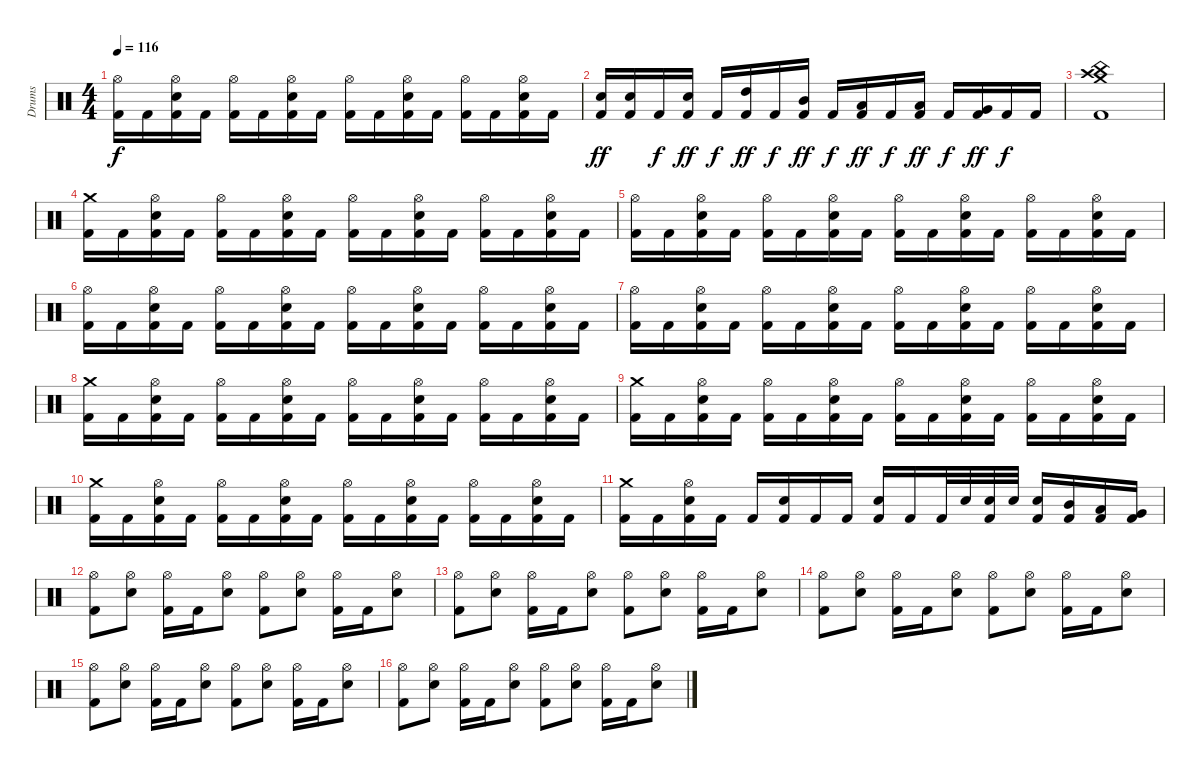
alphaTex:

\track ("Drums" "Drums") {instrument percussion}
\staff {score}
\articulation defaults
\ts (4 4)
\tempo 116
\clef neutral
\ks c
("Hi-Hat (open)" "Kick (hit) 2").16{dy f} "Kick (hit) 2".16 ("Hi-Hat (open)" "Electric Snare (hit)" "Kick (hit) 2").16 "Kick (hit) 2".16 ("Hi-Hat (open)" "Kick (hit) 2").16 "Kick (hit) 2".16 ("Hi-Hat (open)" "Electric Snare (hit)" "Kick (hit) 2").16 "Kick (hit) 2".16 ("Hi-Hat (open)" "Kick (hit) 2").16 "Kick (hit) 2".16 ("Hi-Hat (open)" "Electric Snare (hit)" "Kick (hit) 2").16 "Kick (hit) 2".16 ("Hi-Hat (open)" "Kick (hit) 2").16 "Kick (hit) 2".16 ("Hi-Hat (open)" "Electric Snare (hit)" "Kick (hit) 2").16 "Kick (hit) 2".16 |
("Electric Snare (hit)" "Kick (hit) 2").16{dy ff} ("Electric Snare (hit)" "Kick (hit) 2").16 "Kick (hit) 2".16{dy f} ("Electric Snare (hit)" "Kick (hit) 2").16{dy ff} "Kick (hit) 2".16{dy f} ("High Tom (hit)" "Kick (hit) 2").16{dy ff} "Kick (hit) 2".16{dy f} ("Mid Tom (hit)" "Kick (hit) 2").16{dy ff} "Kick (hit) 2".16{dy f} ("Low Tom (hit)" "Kick (hit) 2").16{dy ff} "Kick (hit) 2".16{dy f} ("Low Tom (hit)" "Kick (hit) 2").16{dy ff} "Kick (hit) 2".16{dy f} ("Very Low Tom (hit)" "Kick (hit) 2").16{dy ff} "Kick (hit) 2".16{dy f} "Kick (hit) 2".16 |
("Crash medium (hit)" "Crash high (hit)" "China (hit)" "Kick (hit) 2").1 |
("Crash medium (hit)" "Kick (hit) 2").16 "Kick (hit) 2".16 ("Hi-Hat (open)" "Electric Snare (hit)" "Kick (hit) 2").16 "Kick (hit) 2".16 ("Hi-Hat (open)" "Kick (hit) 2").16 "Kick (hit) 2".16 ("Hi-Hat (open)" "Electric Snare (hit)" "Kick (hit) 2").16 "Kick (hit) 2".16 ("Hi-Hat (open)" "Kick (hit) 2").16 "Kick (hit) 2".16 ("Hi-Hat (open)" "Electric Snare (hit)" "Kick (hit) 2").16 "Kick (hit) 2".16 ("Hi-Hat (open)" "Kick (hit) 2").16 "Kick (hit) 2".16 ("Hi-Hat (open)" "Electric Snare (hit)" "Kick (hit) 2").16 "Kick (hit) 2".16 |
("Hi-Hat (open)" "Kick (hit) 2").16 "Kick (hit) 2".16 ("Hi-Hat (open)" "Electric Snare (hit)" "Kick (hit) 2").16 "Kick (hit) 2".16 ("Hi-Hat (open)" "Kick (hit) 2").16 "Kick (hit) 2".16 ("Hi-Hat (open)" "Electric Snare (hit)" "Kick (hit) 2").16 "Kick (hit) 2".16 ("Hi-Hat (open)" "Kick (hit) 2").16 "Kick (hit) 2".16 ("Hi-Hat (open)" "Electric Snare (hit)" "Kick (hit) 2").16 "Kick (hit) 2".16 ("Hi-Hat (open)" "Kick (hit) 2").16 "Kick (hit) 2".16 ("Hi-Hat (open)" "Electric Snare (hit)" "Kick (hit) 2").16 "Kick (hit) 2".16 |
("Hi-Hat (open)" "Kick (hit) 2").16 "Kick (hit) 2".16 ("Hi-Hat (open)" "Electric Snare (hit)" "Kick (hit) 2").16 "Kick (hit) 2".16 ("Hi-Hat (open)" "Kick (hit) 2").16 "Kick (hit) 2".16 ("Hi-Hat (open)" "Electric Snare (hit)" "Kick (hit) 2").16 "Kick (hit) 2".16 ("Hi-Hat (open)" "Kick (hit) 2").16 "Kick (hit) 2".16 ("Hi-Hat (open)" "Electric Snare (hit)" "Kick (hit) 2").16 "Kick (hit) 2".16 ("Hi-Hat (open)" "Kick (hit) 2").16 "Kick (hit) 2".16 ("Hi-Hat (open)" "Electric Snare (hit)" "Kick (hit) 2").16 "Kick (hit) 2".16 |
("Hi-Hat (open)" "Kick (hit) 2").16 "Kick (hit) 2".16 ("Hi-Hat (open)" "Electric Snare (hit)" "Kick (hit) 2").16 "Kick (hit) 2".16 ("Hi-Hat (open)" "Kick (hit) 2").16 "Kick (hit) 2".16 ("Hi-Hat (open)" "Electric Snare (hit)" "Kick (hit) 2").16 "Kick (hit) 2".16 ("Hi-Hat (open)" "Kick (hit) 2").16 "Kick (hit) 2".16 ("Hi-Hat (open)" "Electric Snare (hit)" "Kick (hit) 2").16 "Kick (hit) 2".16 ("Hi-Hat (open)" "Kick (hit) 2").16 "Kick (hit) 2".16 ("Hi-Hat (open)" "Electric Snare (hit)" "Kick (hit) 2").16 "Kick (hit) 2".16 |
("Crash medium (hit)" "Kick (hit) 2").16 "Kick (hit) 2".16 ("Hi-Hat (open)" "Electric Snare (hit)" "Kick (hit) 2").16 "Kick (hit) 2".16 ("Hi-Hat (open)" "Kick (hit) 2").16 "Kick (hit) 2".16 ("Hi-Hat (open)" "Electric Snare (hit)" "Kick (hit) 2").16 "Kick (hit) 2".16 ("Hi-Hat (open)" "Kick (hit) 2").16 "Kick (hit) 2".16 ("Hi-Hat (open)" "Electric Snare (hit)" "Kick (hit) 2").16 "Kick (hit) 2".16 ("Hi-Hat (open)" "Kick (hit) 2").16 "Kick (hit) 2".16 ("Hi-Hat (open)" "Electric Snare (hit)" "Kick (hit) 2").16 "Kick (hit) 2".16 |
("Crash medium (hit)" "Kick (hit) 2").16 "Kick (hit) 2".16 ("Hi-Hat (open)" "Electric Snare (hit)" "Kick (hit) 2").16 "Kick (hit) 2".16 ("Hi-Hat (open)" "Kick (hit) 2").16 "Kick (hit) 2".16 ("Hi-Hat (open)" "Electric Snare (hit)" "Kick (hit) 2").16 "Kick (hit) 2".16 ("Hi-Hat (open)" "Kick (hit) 2").16 "Kick (hit) 2".16 ("Hi-Hat (open)" "Electric Snare (hit)" "Kick (hit) 2").16 "Kick (hit) 2".16 ("Hi-Hat (open)" "Kick (hit) 2").16 "Kick (hit) 2".16 ("Hi-Hat (open)" "Electric Snare (hit)" "Kick (hit) 2").16 "Kick (hit) 2".16 |
("Crash medium (hit)" "Kick (hit) 2").16 "Kick (hit) 2".16 ("Hi-Hat (open)" "Electric Snare (hit)" "Kick (hit) 2").16 "Kick (hit) 2".16 ("Hi-Hat (open)" "Kick (hit) 2").16 "Kick (hit) 2".16 ("Hi-Hat (open)" "Electric Snare (hit)" "Kick (hit) 2").16 "Kick (hit) 2".16 ("Hi-Hat (open)" "Kick (hit) 2").16 "Kick (hit) 2".16 ("Hi-Hat (open)" "Electric Snare (hit)" "Kick (hit) 2").16 "Kick (hit) 2".16 ("Hi-Hat (open)" "Kick (hit) 2").16 "Kick (hit) 2".16 ("Hi-Hat (open)" "Electric Snare (hit)" "Kick (hit) 2").16 "Kick (hit) 2".16 |
("Crash medium (hit)" "Kick (hit) 2").16 "Kick (hit) 2".16 ("Hi-Hat (open)" "Electric Snare (hit)" "Kick (hit) 2").16 "Kick (hit) 2".16 "Kick (hit) 2".16 ("Electric Snare (hit)" "Kick (hit) 2").16 "Kick (hit) 2".16 "Kick (hit) 2".16 ("Electric Snare (hit)" "Kick (hit) 2").16 "Kick (hit) 2".16 "Kick (hit) 2".32 "Electric Snare (hit)".32 ("Electric Snare (hit)" "Kick (hit) 2").32 "Electric Snare (hit)".32 ("Electric Snare (hit)" "Kick (hit) 2").16 ("Mid Tom (hit)" "Kick (hit) 2").16 ("Low Tom (hit)" "Kick (hit) 2").16 ("Very Low Tom (hit)" "Kick (hit) 2").16 |
("Hi-Hat (open)" "Kick (hit) 2").8 ("Hi-Hat (open)" "Electric Snare (hit)").8 ("Hi-Hat (open)" "Kick (hit) 2").16 "Kick (hit) 2".16 ("Hi-Hat (open)" "Electric Snare (hit)").8 ("Hi-Hat (open)" "Kick (hit) 2").8 ("Hi-Hat (open)" "Electric Snare (hit)").8 ("Hi-Hat (open)" "Kick (hit) 2").16 "Kick (hit) 2".16 ("Hi-Hat (open)" "Electric Snare (hit)").8 |
("Hi-Hat (open)" "Kick (hit) 2").8 ("Hi-Hat (open)" "Electric Snare (hit)").8 ("Hi-Hat (open)" "Kick (hit) 2").16 "Kick (hit) 2".16 ("Hi-Hat (open)" "Electric Snare (hit)").8 ("Hi-Hat (open)" "Kick (hit) 2").8 ("Hi-Hat (open)" "Electric Snare (hit)").8 ("Hi-Hat (open)" "Kick (hit) 2").16 "Kick (hit) 2".16 ("Hi-Hat (open)" "Electric Snare (hit)").8 |
("Hi-Hat (open)" "Kick (hit) 2").8 ("Hi-Hat (open)" "Electric Snare (hit)").8 ("Hi-Hat (open)" "Kick (hit) 2").16 "Kick (hit) 2".16 ("Hi-Hat (open)" "Electric Snare (hit)").8 ("Hi-Hat (open)" "Kick (hit) 2").8 ("Hi-Hat (open)" "Electric Snare (hit)").8 ("Hi-Hat (open)" "Kick (hit) 2").16 "Kick (hit) 2".16 ("Hi-Hat (open)" "Electric Snare (hit)").8 |
("Hi-Hat (open)" "Kick (hit) 2").8 ("Hi-Hat (open)" "Electric Snare (hit)").8 ("Hi-Hat (open)" "Kick (hit) 2").16 "Kick (hit) 2".16 ("Hi-Hat (open)" "Electric Snare (hit)").8 ("Hi-Hat (open)" "Kick (hit) 2").8 ("Hi-Hat (open)" "Electric Snare (hit)").8 ("Hi-Hat (open)" "Kick (hit) 2").16 "Kick (hit) 2".16 ("Hi-Hat (open)" "Electric Snare (hit)").8 |
("Hi-Hat (open)" "Kick (hit) 2").8 ("Hi-Hat (open)" "Electric Snare (hit)").8 ("Hi-Hat (open)" "Kick (hit) 2").16 "Kick (hit) 2".16 ("Hi-Hat (open)" "Electric Snare (hit)").8 ("Hi-Hat (open)" "Kick (hit) 2").8 ("Hi-Hat (open)" "Electric Snare (hit)").8 ("Hi-Hat (open)" "Kick (hit) 2").16 "Kick (hit) 2".16 ("Hi-Hat (open)" "Electric Snare (hit)").8
